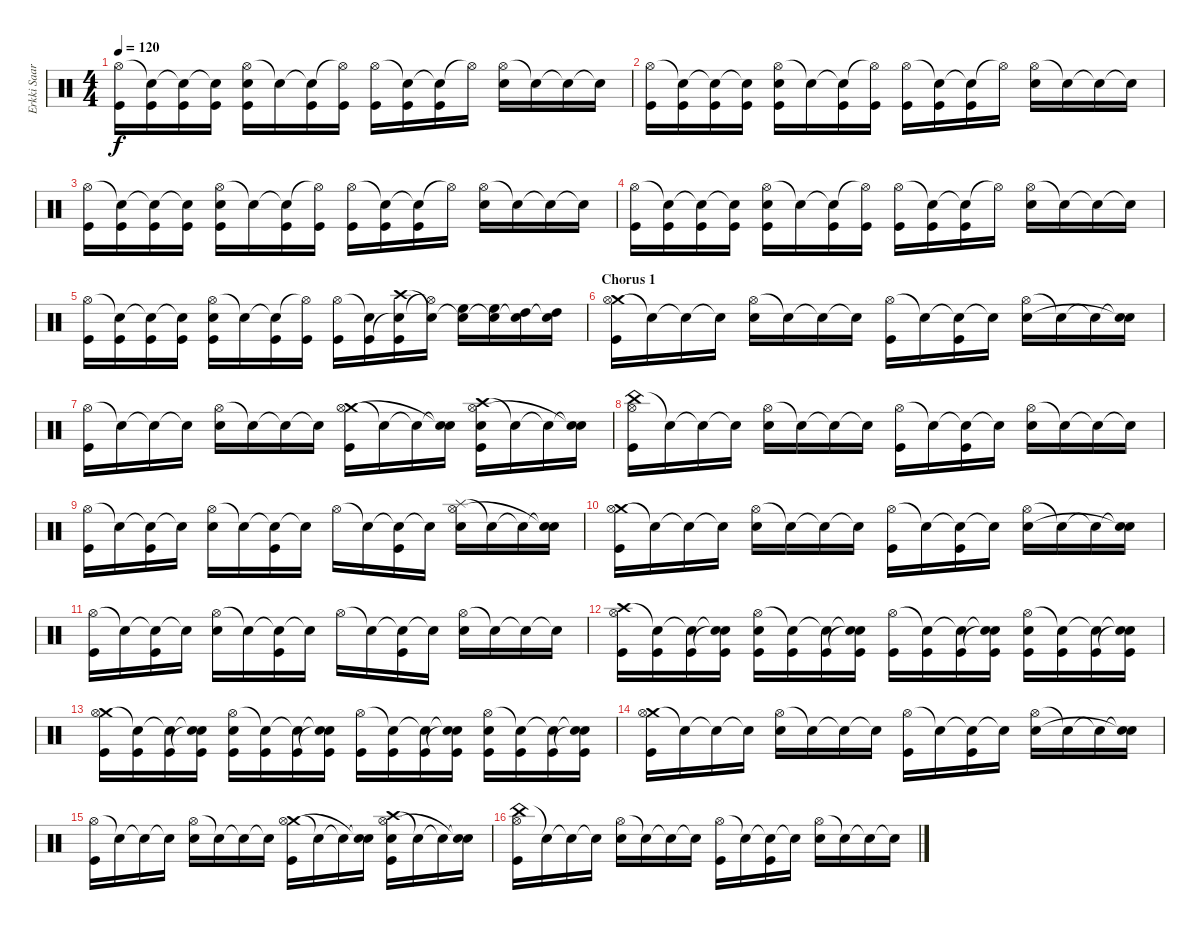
\track ("Erkki Saarinen" "Erkki Saar") {instrument percussion}
\staff {score}
\articulation defaults
\ts (4 4)
\tempo 120
\clef neutral
\ks c
("Hi-Hat (open)" "Kick (hit)").16{dy f} ("Snare (hit)"{t} "Kick (hit)").16 ("Snare (hit)"{t} "Kick (hit)").16 ("Snare (hit)"{t} "Kick (hit)").16 ("Hi-Hat (open)" "Snare (hit) 2" "Kick (hit)").16 "Snare (hit)"{t}.16 ("Snare (hit)"{t} "Kick (hit)").16 ("Hi-Hat (open)"{t} "Kick (hit)").16 ("Hi-Hat (open)" "Kick (hit)").16 ("Snare (hit)"{t} "Kick (hit)").16 ("Snare (hit)"{t} "Kick (hit)").16 "Hi-Hat (open)"{t}.16 ("Hi-Hat (open)" "Snare (hit) 2").16 "Snare (hit)"{t}.16 "Snare (hit)"{t}.16 "Snare (hit)"{t}.16 |
("Hi-Hat (open)" "Kick (hit)").16 ("Snare (hit)"{t} "Kick (hit)").16 ("Snare (hit)"{t} "Kick (hit)").16 ("Snare (hit)"{t} "Kick (hit)").16 ("Hi-Hat (open)" "Snare (hit) 2" "Kick (hit)").16 "Snare (hit)"{t}.16 ("Snare (hit)"{t} "Kick (hit)").16 ("Hi-Hat (open)"{t} "Kick (hit)").16 ("Hi-Hat (open)" "Kick (hit)").16 ("Snare (hit)"{t} "Kick (hit)").16 ("Snare (hit)"{t} "Kick (hit)").16 "Hi-Hat (open)"{t}.16 ("Hi-Hat (open)" "Snare (hit) 2").16 "Snare (hit)"{t}.16 "Snare (hit)"{t}.16 "Snare (hit)"{t}.16 |
("Hi-Hat (open)" "Kick (hit)").16 ("Snare (hit)"{t} "Kick (hit)").16 ("Snare (hit)"{t} "Kick (hit)").16 ("Snare (hit)"{t} "Kick (hit)").16 ("Hi-Hat (open)" "Snare (hit) 2" "Kick (hit)").16 "Snare (hit)"{t}.16 ("Snare (hit)"{t} "Kick (hit)").16 ("Hi-Hat (open)"{t} "Kick (hit)").16 ("Hi-Hat (open)" "Kick (hit)").16 ("Snare (hit)"{t} "Kick (hit)").16 ("Snare (hit)"{t} "Kick (hit)").16 "Hi-Hat (open)"{t}.16 ("Hi-Hat (open)" "Snare (hit) 2").16 "Snare (hit)"{t}.16 "Snare (hit)"{t}.16 "Snare (hit)"{t}.16 |
("Hi-Hat (open)" "Kick (hit)").16 ("Snare (hit)"{t} "Kick (hit)").16 ("Snare (hit)"{t} "Kick (hit)").16 ("Snare (hit)"{t} "Kick (hit)").16 ("Hi-Hat (open)" "Snare (hit) 2" "Kick (hit)").16 "Snare (hit)"{t}.16 ("Snare (hit)"{t} "Kick (hit)").16 ("Hi-Hat (open)"{t} "Kick (hit)").16 ("Hi-Hat (open)" "Kick (hit)").16 ("Snare (hit)"{t} "Kick (hit)").16 ("Snare (hit)"{t} "Kick (hit)").16 "Hi-Hat (open)"{t}.16 ("Hi-Hat (open)" "Snare (hit) 2").16 "Snare (hit)"{t}.16 "Snare (hit)"{t}.16 "Snare (hit)"{t}.16 |
("Hi-Hat (open)" "Kick (hit)").16 ("Snare (hit)"{t} "Kick (hit)").16 ("Snare (hit)"{t} "Kick (hit)").16 ("Snare (hit)"{t} "Kick (hit)").16 ("Hi-Hat (open)" "Snare (hit) 2" "Kick (hit)").16 "Snare (hit)"{t}.16 ("Snare (hit)"{t} "Kick (hit)").16 ("Hi-Hat (open)"{t} "Kick (hit)").16 ("Hi-Hat (open)" "Kick (hit)").16 ("Snare (hit)"{t} "Kick (hit)").16 ("Crash high (hit)" "Snare (hit)"{t} "Kick (hit)").16 ("Snare (hit)"{t} "Hi-Hat (open)"{t}).16 ("Snare (hit)"{t} "High Floor Tom (hit)").16 ("Snare (hit)"{t} "High Floor Tom (hit)").16 ("Snare (hit)"{t} "High Tom (hit)").16 ("Snare (hit)"{t} "High Tom (hit)").16 |
\section ("" "Chorus 1")
("Crash medium (hit)" "Hi-Hat (open)" "Kick (hit)").16 "Snare (hit)"{t}.16 "Snare (hit)"{t}.16 "Snare (hit)"{t}.16 ("Hi-Hat (open)" "Snare (hit) 2").16 "Snare (hit)"{t}.16 "Snare (hit)"{t}.16 "Snare (hit)"{t}.16 ("Hi-Hat (open)" "Kick (hit)").16 "Snare (hit)"{t}.16 ("Snare (hit)"{t} "Kick (hit)").16 "Snare (hit)"{t}.16 ("Hi-Hat (open)" "Snare (hit) 2").16 "Snare (hit)"{t}.16 "Snare (hit)"{t}.16 ("Snare (hit)"{t} "Snare (hit)"{t}).16 |
("Hi-Hat (open)" "Kick (hit)").16 "Snare (hit)"{t}.16 "Snare (hit)"{t}.16 "Snare (hit)"{t}.16 ("Hi-Hat (open)" "Snare (hit) 2").16 "Snare (hit)"{t}.16 "Snare (hit)"{t}.16 "Snare (hit)"{t}.16 ("Crash medium (hit)" "Hi-Hat (open)" "Kick (hit)").16 "Snare (hit)"{t}.16 "Snare (hit)"{t}.16 ("Snare (hit)"{t} "Snare (hit)"{t}).16 ("Crash high (hit)" "Hi-Hat (open)" "Snare (hit) 2" "Kick (hit)").16 "Snare (hit)"{t}.16 "Snare (hit)"{t}.16 ("Snare (hit)"{t} "Snare (hit)"{t}).16 |
("China (hit)" "Hi-Hat (open)" "Kick (hit)").16 "Snare (hit)"{t}.16 "Snare (hit)"{t}.16 "Snare (hit)"{t}.16 ("Hi-Hat (open)" "Snare (hit) 2").16 "Snare (hit)"{t}.16 "Snare (hit)"{t}.16 "Snare (hit)"{t}.16 ("Hi-Hat (open)" "Kick (hit)").16 "Snare (hit)"{t}.16 ("Snare (hit)"{t} "Kick (hit)").16 "Snare (hit)"{t}.16 ("Hi-Hat (open)" "Snare (hit) 2").16 "Snare (hit)"{t}.16 "Snare (hit)"{t}.16 "Snare (hit)"{t}.16 |
("Hi-Hat (open)" "Kick (hit)").16 "Snare (hit)"{t}.16 ("Snare (hit)"{t} "Kick (hit)").16 "Snare (hit)"{t}.16 ("Hi-Hat (open)" "Snare (hit) 2").16 "Snare (hit)"{t}.16 ("Snare (hit)"{t} "Kick (hit)").16 "Snare (hit)"{t}.16 "Hi-Hat (open)".16 "Snare (hit)"{t}.16 ("Snare (hit)"{t} "Kick (hit)").16 "Snare (hit)"{t}.16 ("Splash (hit)" "Hi-Hat (open)" "Snare (hit) 2").16 "Snare (hit)"{t}.16 "Snare (hit)"{t}.16 ("Snare (hit)"{t} "Snare (hit)"{t}).16 |
("Crash medium (hit)" "Hi-Hat (open)" "Kick (hit)").16 "Snare (hit)"{t}.16 "Snare (hit)"{t}.16 "Snare (hit)"{t}.16 ("Hi-Hat (open)" "Snare (hit) 2").16 "Snare (hit)"{t}.16 "Snare (hit)"{t}.16 "Snare (hit)"{t}.16 ("Hi-Hat (open)" "Kick (hit)").16 "Snare (hit)"{t}.16 ("Snare (hit)"{t} "Kick (hit)").16 "Snare (hit)"{t}.16 ("Hi-Hat (open)" "Snare (hit) 2").16 "Snare (hit)"{t}.16 "Snare (hit)"{t}.16 ("Snare (hit)"{t} "Snare (hit)"{t}).16 |
("Hi-Hat (open)" "Kick (hit)").16 "Snare (hit)"{t}.16 ("Snare (hit)"{t} "Kick (hit)").16 "Snare (hit)"{t}.16 ("Hi-Hat (open)" "Snare (hit) 2").16 "Snare (hit)"{t}.16 ("Snare (hit)"{t} "Kick (hit)").16 "Snare (hit)"{t}.16 "Hi-Hat (open)".16 "Snare (hit)"{t}.16 ("Snare (hit)"{t} "Kick (hit)").16 "Snare (hit)"{t}.16 ("Hi-Hat (open)" "Snare (hit) 2").16 "Snare (hit)"{t}.16 "Snare (hit)"{t}.16 "Snare (hit)"{t}.16 |
("Crash high (hit)" "Hi-Hat (open)" "Kick (hit)").16 ("Snare (hit)"{t} "Kick (hit)").16 ("Snare (hit)"{t} "Kick (hit)").16 ("Snare (hit)"{t} "Snare (hit)"{t} "Kick (hit)").16 ("Hi-Hat (open)" "Snare (hit) 2" "Kick (hit)").16 ("Snare (hit)"{t} "Kick (hit)").16 ("Snare (hit)"{t} "Kick (hit)").16 ("Snare (hit)"{t} "Snare (hit)"{t} "Kick (hit)").16 ("Hi-Hat (open)" "Kick (hit)").16 ("Snare (hit)"{t} "Kick (hit)").16 ("Snare (hit)"{t} "Kick (hit)").16 ("Snare (hit)"{t} "Snare (hit)"{t} "Kick (hit)").16 ("Hi-Hat (open)" "Snare (hit) 2" "Kick (hit)").16 ("Snare (hit)"{t} "Kick (hit)").16 ("Snare (hit)"{t} "Kick (hit)").16 ("Snare (hit)"{t} "Snare (hit)"{t} "Kick (hit)").16 |
("Crash medium (hit)" "Hi-Hat (open)" "Kick (hit)").16 ("Snare (hit)"{t} "Kick (hit)").16 ("Snare (hit)"{t} "Kick (hit)").16 ("Snare (hit)"{t} "Snare (hit)"{t} "Kick (hit)").16 ("Hi-Hat (open)" "Snare (hit) 2" "Kick (hit)").16 ("Snare (hit)"{t} "Kick (hit)").16 ("Snare (hit)"{t} "Kick (hit)").16 ("Snare (hit)"{t} "Snare (hit)"{t} "Kick (hit)").16 ("Hi-Hat (open)" "Kick (hit)").16 ("Snare (hit)"{t} "Kick (hit)").16 ("Snare (hit)"{t} "Kick (hit)").16 ("Snare (hit)"{t} "Snare (hit)"{t} "Kick (hit)").16 ("Hi-Hat (open)" "Snare (hit) 2" "Kick (hit)").16 ("Snare (hit)"{t} "Kick (hit)").16 ("Snare (hit)"{t} "Kick (hit)").16 ("Snare (hit)"{t} "Snare (hit)"{t} "Kick (hit)").16 |
("Crash medium (hit)" "Hi-Hat (open)" "Kick (hit)").16 "Snare (hit)"{t}.16 "Snare (hit)"{t}.16 "Snare (hit)"{t}.16 ("Hi-Hat (open)" "Snare (hit) 2").16 "Snare (hit)"{t}.16 "Snare (hit)"{t}.16 "Snare (hit)"{t}.16 ("Hi-Hat (open)" "Kick (hit)").16 "Snare (hit)"{t}.16 ("Snare (hit)"{t} "Kick (hit)").16 "Snare (hit)"{t}.16 ("Hi-Hat (open)" "Snare (hit) 2").16 "Snare (hit)"{t}.16 "Snare (hit)"{t}.16 ("Snare (hit)"{t} "Snare (hit)"{t}).16 |
("Hi-Hat (open)" "Kick (hit)").16 "Snare (hit)"{t}.16 "Snare (hit)"{t}.16 "Snare (hit)"{t}.16 ("Hi-Hat (open)" "Snare (hit) 2").16 "Snare (hit)"{t}.16 "Snare (hit)"{t}.16 "Snare (hit)"{t}.16 ("Crash medium (hit)" "Hi-Hat (open)" "Kick (hit)").16 "Snare (hit)"{t}.16 "Snare (hit)"{t}.16 ("Snare (hit)"{t} "Snare (hit)"{t}).16 ("Crash high (hit)" "Hi-Hat (open)" "Snare (hit) 2" "Kick (hit)").16 "Snare (hit)"{t}.16 "Snare (hit)"{t}.16 ("Snare (hit)"{t} "Snare (hit)"{t}).16 |
("China (hit)" "Hi-Hat (open)" "Kick (hit)").16 "Snare (hit)"{t}.16 "Snare (hit)"{t}.16 "Snare (hit)"{t}.16 ("Hi-Hat (open)" "Snare (hit) 2").16 "Snare (hit)"{t}.16 "Snare (hit)"{t}.16 "Snare (hit)"{t}.16 ("Hi-Hat (open)" "Kick (hit)").16 "Snare (hit)"{t}.16 ("Snare (hit)"{t} "Kick (hit)").16 "Snare (hit)"{t}.16 ("Hi-Hat (open)" "Snare (hit) 2").16 "Snare (hit)"{t}.16 "Snare (hit)"{t}.16 "Snare (hit)"{t}.16
